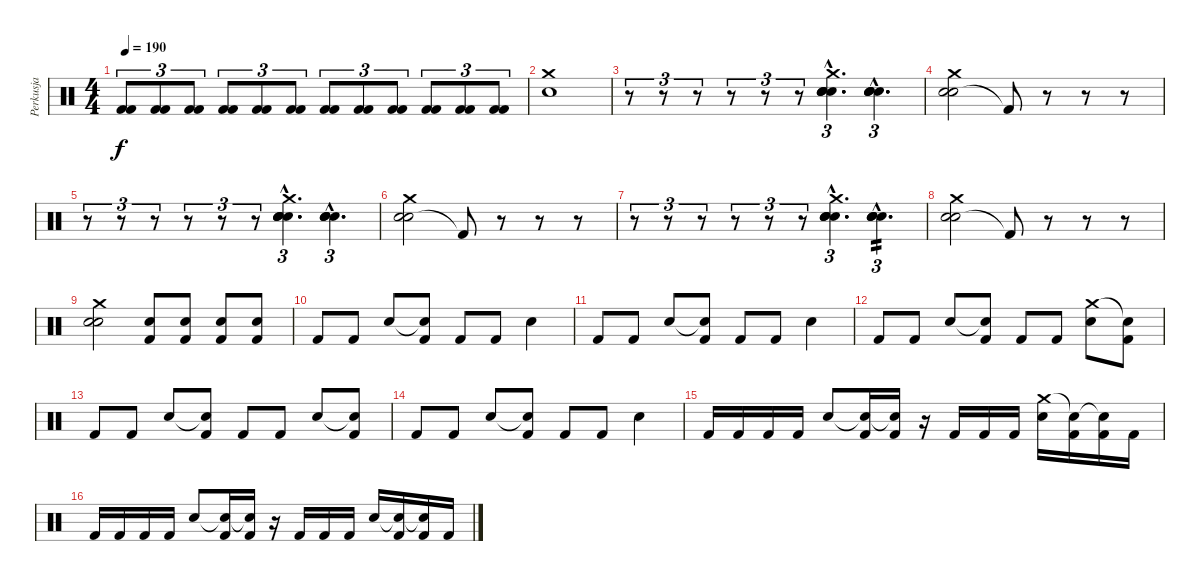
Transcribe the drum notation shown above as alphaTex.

\track ("Perkusja" "Perkusja") {instrument percussion}
\staff {score}
\articulation defaults
\ts (4 4)
\tempo 190
\clef neutral
\ks c
("Kick (hit) 2" "Kick (hit) 2").8{tu (3 2) dy f balance 16} ("Kick (hit) 2" "Kick (hit) 2").8{tu (3 2) balance 14} ("Kick (hit) 2" "Kick (hit) 2").8{tu (3 2) balance 12} ("Kick (hit) 2" "Kick (hit) 2").8{tu (3 2) balance 11} ("Kick (hit) 2" "Kick (hit) 2").8{tu (3 2)} ("Kick (hit) 2" "Kick (hit) 2").8{tu (3 2)} ("Kick (hit) 2" "Kick (hit) 2").8{tu (3 2)} ("Kick (hit) 2" "Kick (hit) 2").8{tu (3 2) balance 7} ("Kick (hit) 2" "Kick (hit) 2").8{tu (3 2) balance 4} ("Kick (hit) 2" "Kick (hit) 2").8{tu (3 2) balance 3} ("Kick (hit) 2" "Kick (hit) 2").8{tu (3 2) balance 1} ("Kick (hit) 2" "Kick (hit) 2").8{tu (3 2) balance 0} |
("Crash medium (hit)" "Electric Snare (hit)").1{balance 8} |
r.8{tu (3 2)} r.8{tu (3 2)} r.8{tu (3 2)} r.8{tu (3 2)} r.8{tu (3 2)} r.8{tu (3 2)} ("Electric Snare (hit)"{hac} "Crash medium (hit)"{hac} "Snare (hit) 2"{hac} "Electric Snare (hit)"{hac} "Electric Snare (hit)"{hac}).4{d tu (3 2)} ("Electric Snare (hit)"{hac} "Electric Snare (hit)"{hac} "Electric Snare (hit)"{hac} "Snare (hit) 2"{hac}).4{d tu (3 2)} |
("Snare (hit) 2" "Electric Snare (hit)" "Crash medium (hit)").2 "Kick (hit) 2"{t}.8 r.8 r.8 r.8 |
r.8{tu (3 2)} r.8{tu (3 2)} r.8{tu (3 2)} r.8{tu (3 2)} r.8{tu (3 2)} r.8{tu (3 2)} ("Electric Snare (hit)"{hac} "Crash medium (hit)"{hac} "Snare (hit) 2"{hac} "Electric Snare (hit)"{hac} "Electric Snare (hit)"{hac}).4{d tu (3 2)} ("Electric Snare (hit)"{hac} "Electric Snare (hit)"{hac} "Electric Snare (hit)"{hac} "Snare (hit) 2"{hac}).4{d tu (3 2)} |
("Snare (hit) 2" "Electric Snare (hit)" "Crash medium (hit)").2 "Kick (hit) 2"{t}.8 r.8 r.8 r.8 |
r.8{tu (3 2)} r.8{tu (3 2)} r.8{tu (3 2)} r.8{tu (3 2)} r.8{tu (3 2)} r.8{tu (3 2)} ("Electric Snare (hit)"{hac} "Crash medium (hit)"{hac} "Snare (hit) 2"{hac} "Electric Snare (hit)"{hac} "Electric Snare (hit)"{hac}).4{d tu (3 2)} ("Electric Snare (hit)"{hac} "Electric Snare (hit)"{hac} "Electric Snare (hit)"{hac} "Snare (hit) 2"{hac}).4{d tu (3 2) tp 2} |
("Snare (hit) 2" "Electric Snare (hit)" "Crash medium (hit)").2 "Kick (hit) 2"{t}.8 r.8 r.8 r.8 |
("Snare (hit) 2" "Electric Snare (hit)" "Crash medium (hit)").2 ("Electric Snare (hit)" "Kick (hit) 2").8{balance 0} ("Electric Snare (hit)" "Kick (hit) 2").8 ("Electric Snare (hit)" "Kick (hit) 2").8 ("Electric Snare (hit)" "Kick (hit) 2").8 |
"Kick (hit) 2".8{balance 8} "Kick (hit) 2".8 "Electric Snare (hit)".8 ("Snare (hit)"{t} "Kick (hit) 2").8 "Kick (hit) 2".8 "Kick (hit) 2".8 "Electric Snare (hit)".4 |
"Kick (hit) 2".8 "Kick (hit) 2".8 "Electric Snare (hit)".8 ("Snare (hit)"{t} "Kick (hit) 2").8 "Kick (hit) 2".8 "Kick (hit) 2".8 "Electric Snare (hit)".4 |
"Kick (hit) 2".8 "Kick (hit) 2".8 "Electric Snare (hit)".8 ("Snare (hit)"{t} "Kick (hit) 2").8 "Kick (hit) 2".8 "Kick (hit) 2".8 ("Crash medium (hit)" "Electric Snare (hit)").8 ("Snare (hit)"{t} "Kick (hit) 2").8 |
"Kick (hit) 2".8 "Kick (hit) 2".8 "Electric Snare (hit)".8 ("Snare (hit)"{t} "Kick (hit) 2").8 "Kick (hit) 2".8 "Kick (hit) 2".8 "Electric Snare (hit)".8 ("Snare (hit)"{t} "Kick (hit) 2").8 |
"Kick (hit) 2".8 "Kick (hit) 2".8 "Electric Snare (hit)".8 ("Snare (hit)"{t} "Kick (hit) 2").8 "Kick (hit) 2".8 "Kick (hit) 2".8 "Electric Snare (hit)".4 |
"Kick (hit) 2".16 "Kick (hit) 2".16 "Kick (hit) 2".16 "Kick (hit) 2".16 "Electric Snare (hit)".8 ("Snare (hit)"{t} "Kick (hit) 2").16 ("Snare (hit)"{t} "Kick (hit) 2").16 r.16 "Kick (hit) 2".16 "Kick (hit) 2".16 "Kick (hit) 2".16 ("Crash medium (hit)" "Electric Snare (hit)").16 ("Snare (hit)"{t} "Kick (hit) 2").16 ("Snare (hit)"{t} "Kick (hit) 2").16 "Kick (hit) 2".16 |
"Kick (hit) 2".16 "Kick (hit) 2".16 "Kick (hit) 2".16 "Kick (hit) 2".16 "Electric Snare (hit)".8 ("Snare (hit)"{t} "Kick (hit) 2").16 ("Snare (hit)"{t} "Kick (hit) 2").16 r.16 "Kick (hit) 2".16 "Kick (hit) 2".16 "Kick (hit) 2".16 "Electric Snare (hit)".16 ("Snare (hit)"{t} "Kick (hit) 2").16 ("Snare (hit)"{t} "Kick (hit) 2").16 "Kick (hit) 2".16
